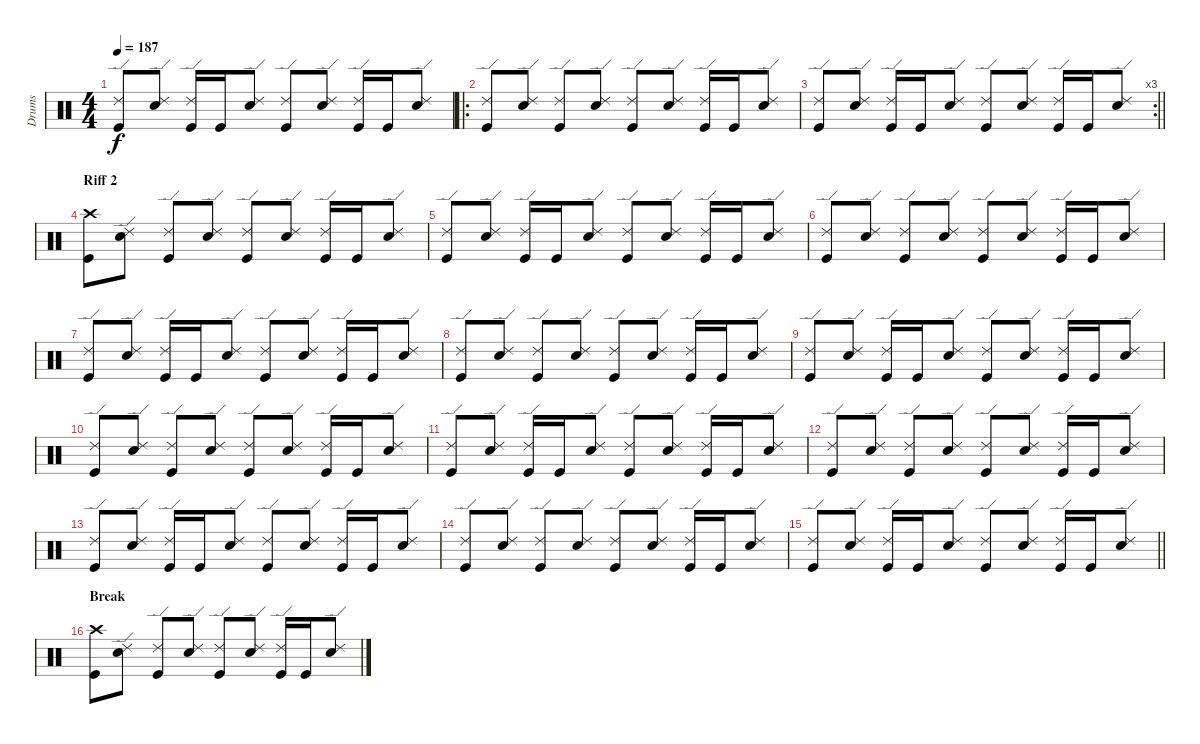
\track ("Drums" "Drums") {instrument percussion}
\staff {score}
\articulation defaults
\ts (4 4)
\tempo 187
\clef neutral
\ks c
("Ride (edge) 2" "Kick (hit)").8{dy f} ("Ride (edge) 2" "Snare (hit) 2").8 ("Ride (edge) 2" "Kick (hit)").16 "Kick (hit)".16 ("Ride (edge) 2" "Snare (hit) 2").8 ("Ride (edge) 2" "Kick (hit)").8 ("Ride (edge) 2" "Snare (hit) 2").8 ("Ride (edge) 2" "Kick (hit)").16 "Kick (hit)".16 ("Ride (edge) 2" "Snare (hit) 2").8 |
\ro
("Ride (edge) 2" "Kick (hit)").8 ("Ride (edge) 2" "Snare (hit) 2").8 ("Ride (edge) 2" "Kick (hit)").8 ("Ride (edge) 2" "Snare (hit) 2").8 ("Ride (edge) 2" "Kick (hit)").8 ("Ride (edge) 2" "Snare (hit) 2").8 ("Ride (edge) 2" "Kick (hit)").16 "Kick (hit)".16 ("Ride (edge) 2" "Snare (hit) 2").8 |
\rc 3
\barLineRight lightlight
("Ride (edge) 2" "Kick (hit)").8 ("Ride (edge) 2" "Snare (hit) 2").8 ("Ride (edge) 2" "Kick (hit)").16 "Kick (hit)".16 ("Ride (edge) 2" "Snare (hit) 2").8 ("Ride (edge) 2" "Kick (hit)").8 ("Ride (edge) 2" "Snare (hit) 2").8 ("Ride (edge) 2" "Kick (hit)").16 "Kick (hit)".16 ("Ride (edge) 2" "Snare (hit) 2").8 |
\section ("" "Riff 2")
("Crash high (hit)" "Kick (hit)").8 ("Ride (edge) 2" "Snare (hit) 2").8 ("Ride (edge) 2" "Kick (hit)").8 ("Ride (edge) 2" "Snare (hit) 2").8 ("Ride (edge) 2" "Kick (hit)").8 ("Ride (edge) 2" "Snare (hit) 2").8 ("Ride (edge) 2" "Kick (hit)").16 "Kick (hit)".16 ("Ride (edge) 2" "Snare (hit) 2").8 |
("Ride (edge) 2" "Kick (hit)").8 ("Ride (edge) 2" "Snare (hit) 2").8 ("Ride (edge) 2" "Kick (hit)").16 "Kick (hit)".16 ("Ride (edge) 2" "Snare (hit) 2").8 ("Ride (edge) 2" "Kick (hit)").8 ("Ride (edge) 2" "Snare (hit) 2").8 ("Ride (edge) 2" "Kick (hit)").16 "Kick (hit)".16 ("Ride (edge) 2" "Snare (hit) 2").8 |
("Ride (edge) 2" "Kick (hit)").8 ("Ride (edge) 2" "Snare (hit) 2").8 ("Ride (edge) 2" "Kick (hit)").8 ("Ride (edge) 2" "Snare (hit) 2").8 ("Ride (edge) 2" "Kick (hit)").8 ("Ride (edge) 2" "Snare (hit) 2").8 ("Ride (edge) 2" "Kick (hit)").16 "Kick (hit)".16 ("Ride (edge) 2" "Snare (hit) 2").8 |
("Ride (edge) 2" "Kick (hit)").8 ("Ride (edge) 2" "Snare (hit) 2").8 ("Ride (edge) 2" "Kick (hit)").16 "Kick (hit)".16 ("Ride (edge) 2" "Snare (hit) 2").8 ("Ride (edge) 2" "Kick (hit)").8 ("Ride (edge) 2" "Snare (hit) 2").8 ("Ride (edge) 2" "Kick (hit)").16 "Kick (hit)".16 ("Ride (edge) 2" "Snare (hit) 2").8 |
("Ride (edge) 2" "Kick (hit)").8 ("Ride (edge) 2" "Snare (hit) 2").8 ("Ride (edge) 2" "Kick (hit)").8 ("Ride (edge) 2" "Snare (hit) 2").8 ("Ride (edge) 2" "Kick (hit)").8 ("Ride (edge) 2" "Snare (hit) 2").8 ("Ride (edge) 2" "Kick (hit)").16 "Kick (hit)".16 ("Ride (edge) 2" "Snare (hit) 2").8 |
("Ride (edge) 2" "Kick (hit)").8 ("Ride (edge) 2" "Snare (hit) 2").8 ("Ride (edge) 2" "Kick (hit)").16 "Kick (hit)".16 ("Ride (edge) 2" "Snare (hit) 2").8 ("Ride (edge) 2" "Kick (hit)").8 ("Ride (edge) 2" "Snare (hit) 2").8 ("Ride (edge) 2" "Kick (hit)").16 "Kick (hit)".16 ("Ride (edge) 2" "Snare (hit) 2").8 |
("Ride (edge) 2" "Kick (hit)").8 ("Ride (edge) 2" "Snare (hit) 2").8 ("Ride (edge) 2" "Kick (hit)").8 ("Ride (edge) 2" "Snare (hit) 2").8 ("Ride (edge) 2" "Kick (hit)").8 ("Ride (edge) 2" "Snare (hit) 2").8 ("Ride (edge) 2" "Kick (hit)").16 "Kick (hit)".16 ("Ride (edge) 2" "Snare (hit) 2").8 |
("Ride (edge) 2" "Kick (hit)").8 ("Ride (edge) 2" "Snare (hit) 2").8 ("Ride (edge) 2" "Kick (hit)").16 "Kick (hit)".16 ("Ride (edge) 2" "Snare (hit) 2").8 ("Ride (edge) 2" "Kick (hit)").8 ("Ride (edge) 2" "Snare (hit) 2").8 ("Ride (edge) 2" "Kick (hit)").16 "Kick (hit)".16 ("Ride (edge) 2" "Snare (hit) 2").8 |
("Ride (edge) 2" "Kick (hit)").8 ("Ride (edge) 2" "Snare (hit) 2").8 ("Ride (edge) 2" "Kick (hit)").8 ("Ride (edge) 2" "Snare (hit) 2").8 ("Ride (edge) 2" "Kick (hit)").8 ("Ride (edge) 2" "Snare (hit) 2").8 ("Ride (edge) 2" "Kick (hit)").16 "Kick (hit)".16 ("Ride (edge) 2" "Snare (hit) 2").8 |
("Ride (edge) 2" "Kick (hit)").8 ("Ride (edge) 2" "Snare (hit) 2").8 ("Ride (edge) 2" "Kick (hit)").16 "Kick (hit)".16 ("Ride (edge) 2" "Snare (hit) 2").8 ("Ride (edge) 2" "Kick (hit)").8 ("Ride (edge) 2" "Snare (hit) 2").8 ("Ride (edge) 2" "Kick (hit)").16 "Kick (hit)".16 ("Ride (edge) 2" "Snare (hit) 2").8 |
("Ride (edge) 2" "Kick (hit)").8 ("Ride (edge) 2" "Snare (hit) 2").8 ("Ride (edge) 2" "Kick (hit)").8 ("Ride (edge) 2" "Snare (hit) 2").8 ("Ride (edge) 2" "Kick (hit)").8 ("Ride (edge) 2" "Snare (hit) 2").8 ("Ride (edge) 2" "Kick (hit)").16 "Kick (hit)".16 ("Ride (edge) 2" "Snare (hit) 2").8 |
\barLineRight lightlight
("Ride (edge) 2" "Kick (hit)").8 ("Ride (edge) 2" "Snare (hit) 2").8 ("Ride (edge) 2" "Kick (hit)").16 "Kick (hit)".16 ("Ride (edge) 2" "Snare (hit) 2").8 ("Ride (edge) 2" "Kick (hit)").8 ("Ride (edge) 2" "Snare (hit) 2").8 ("Ride (edge) 2" "Kick (hit)").16 "Kick (hit)".16 ("Ride (edge) 2" "Snare (hit) 2").8 |
\section ("" "Break")
("Crash high (hit)" "Kick (hit)").8 ("Ride (edge) 2" "Snare (hit) 2").8 ("Ride (edge) 2" "Kick (hit)").8 ("Ride (edge) 2" "Snare (hit) 2").8 ("Ride (edge) 2" "Kick (hit)").8 ("Ride (edge) 2" "Snare (hit) 2").8 ("Ride (edge) 2" "Kick (hit)").16 "Kick (hit)".16 ("Ride (edge) 2" "Snare (hit) 2").8
